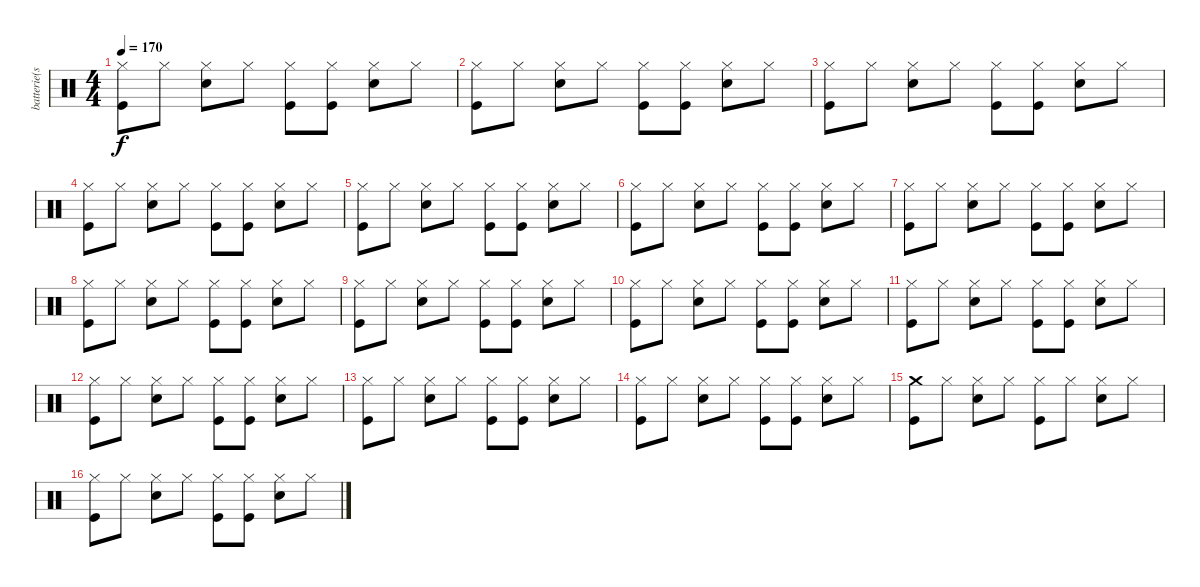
\track ("batterie(steve)" "batterie(s") {instrument percussion}
\staff {score}
\articulation defaults
\ts (4 4)
\tempo 170
\clef neutral
\ks c
("Hi-Hat (closed)" "Kick (hit)").8{dy f} "Hi-Hat (closed)".8 ("Hi-Hat (closed)" "Snare (hit) 2").8 "Hi-Hat (closed)".8 ("Hi-Hat (closed)" "Kick (hit)").8 ("Hi-Hat (closed)" "Kick (hit)").8 ("Hi-Hat (closed)" "Snare (hit) 2").8 "Hi-Hat (closed)".8 |
("Hi-Hat (closed)" "Kick (hit)").8 "Hi-Hat (closed)".8 ("Hi-Hat (closed)" "Snare (hit) 2").8 "Hi-Hat (closed)".8 ("Hi-Hat (closed)" "Kick (hit)").8 ("Hi-Hat (closed)" "Kick (hit)").8 ("Hi-Hat (closed)" "Snare (hit) 2").8 "Hi-Hat (closed)".8 |
("Hi-Hat (closed)" "Kick (hit)").8 "Hi-Hat (closed)".8 ("Hi-Hat (closed)" "Snare (hit) 2").8 "Hi-Hat (closed)".8 ("Hi-Hat (closed)" "Kick (hit)").8 ("Hi-Hat (closed)" "Kick (hit)").8 ("Hi-Hat (closed)" "Snare (hit) 2").8 "Hi-Hat (closed)".8 |
("Hi-Hat (closed)" "Kick (hit)").8 "Hi-Hat (closed)".8 ("Hi-Hat (closed)" "Snare (hit) 2").8 "Hi-Hat (closed)".8 ("Hi-Hat (closed)" "Kick (hit)").8 ("Hi-Hat (closed)" "Kick (hit)").8 ("Hi-Hat (closed)" "Snare (hit) 2").8 "Hi-Hat (closed)".8 |
("Hi-Hat (closed)" "Kick (hit)").8 "Hi-Hat (closed)".8 ("Hi-Hat (closed)" "Snare (hit) 2").8 "Hi-Hat (closed)".8 ("Hi-Hat (closed)" "Kick (hit)").8 ("Hi-Hat (closed)" "Kick (hit)").8 ("Hi-Hat (closed)" "Snare (hit) 2").8 "Hi-Hat (closed)".8 |
("Hi-Hat (closed)" "Kick (hit)").8{volume 2} "Hi-Hat (closed)".8 ("Hi-Hat (closed)" "Snare (hit) 2").8 "Hi-Hat (closed)".8 ("Hi-Hat (closed)" "Kick (hit)").8 ("Hi-Hat (closed)" "Kick (hit)").8 ("Hi-Hat (closed)" "Snare (hit) 2").8 "Hi-Hat (closed)".8 |
("Hi-Hat (closed)" "Kick (hit)").8 "Hi-Hat (closed)".8 ("Hi-Hat (closed)" "Snare (hit) 2").8 "Hi-Hat (closed)".8 ("Hi-Hat (closed)" "Kick (hit)").8 ("Hi-Hat (closed)" "Kick (hit)").8 ("Hi-Hat (closed)" "Snare (hit) 2").8 "Hi-Hat (closed)".8 |
("Hi-Hat (closed)" "Kick (hit)").8 "Hi-Hat (closed)".8 ("Hi-Hat (closed)" "Snare (hit) 2").8 "Hi-Hat (closed)".8 ("Hi-Hat (closed)" "Kick (hit)").8 ("Hi-Hat (closed)" "Kick (hit)").8 ("Hi-Hat (closed)" "Snare (hit) 2").8 "Hi-Hat (closed)".8 |
("Hi-Hat (closed)" "Kick (hit)").8 "Hi-Hat (closed)".8 ("Hi-Hat (closed)" "Snare (hit) 2").8 "Hi-Hat (closed)".8 ("Hi-Hat (closed)" "Kick (hit)").8 ("Hi-Hat (closed)" "Kick (hit)").8 ("Hi-Hat (closed)" "Snare (hit) 2").8 "Hi-Hat (closed)".8 |
("Hi-Hat (closed)" "Kick (hit)").8 "Hi-Hat (closed)".8 ("Hi-Hat (closed)" "Snare (hit) 2").8 "Hi-Hat (closed)".8 ("Hi-Hat (closed)" "Kick (hit)").8 ("Hi-Hat (closed)" "Kick (hit)").8 ("Hi-Hat (closed)" "Snare (hit) 2").8 "Hi-Hat (closed)".8 |
("Hi-Hat (closed)" "Kick (hit)").8 "Hi-Hat (closed)".8 ("Hi-Hat (closed)" "Snare (hit) 2").8 "Hi-Hat (closed)".8 ("Hi-Hat (closed)" "Kick (hit)").8 ("Hi-Hat (closed)" "Kick (hit)").8 ("Hi-Hat (closed)" "Snare (hit) 2").8 "Hi-Hat (closed)".8 |
("Hi-Hat (closed)" "Kick (hit)").8 "Hi-Hat (closed)".8 ("Hi-Hat (closed)" "Snare (hit) 2").8 "Hi-Hat (closed)".8 ("Hi-Hat (closed)" "Kick (hit)").8 ("Hi-Hat (closed)" "Kick (hit)").8 ("Hi-Hat (closed)" "Snare (hit) 2").8 "Hi-Hat (closed)".8 |
("Hi-Hat (closed)" "Kick (hit)").8 "Hi-Hat (closed)".8 ("Hi-Hat (closed)" "Snare (hit) 2").8 "Hi-Hat (closed)".8 ("Hi-Hat (closed)" "Kick (hit)").8 ("Hi-Hat (closed)" "Kick (hit)").8 ("Hi-Hat (closed)" "Snare (hit) 2").8 "Hi-Hat (closed)".8 |
("Hi-Hat (closed)" "Kick (hit)").8{volume 1} "Hi-Hat (closed)".8 ("Hi-Hat (closed)" "Snare (hit) 2").8 "Hi-Hat (closed)".8 ("Hi-Hat (closed)" "Kick (hit)").8 ("Hi-Hat (closed)" "Kick (hit)").8 ("Hi-Hat (closed)" "Snare (hit) 2").8 "Hi-Hat (closed)".8 |
("Crash medium (hit)" "Kick (hit)").8{volume 1} "Hi-Hat (closed)".8 ("Hi-Hat (closed)" "Snare (hit) 2").8 "Hi-Hat (closed)".8 ("Hi-Hat (closed)" "Kick (hit)").8 "Hi-Hat (closed)".8 ("Hi-Hat (closed)" "Snare (hit) 2").8 "Hi-Hat (closed)".8 |
("Hi-Hat (closed)" "Kick (hit)").8 "Hi-Hat (closed)".8 ("Hi-Hat (closed)" "Snare (hit) 2").8 "Hi-Hat (closed)".8 ("Hi-Hat (closed)" "Kick (hit)").8 ("Hi-Hat (closed)" "Kick (hit)").8 ("Hi-Hat (closed)" "Snare (hit) 2").8 "Hi-Hat (closed)".8
